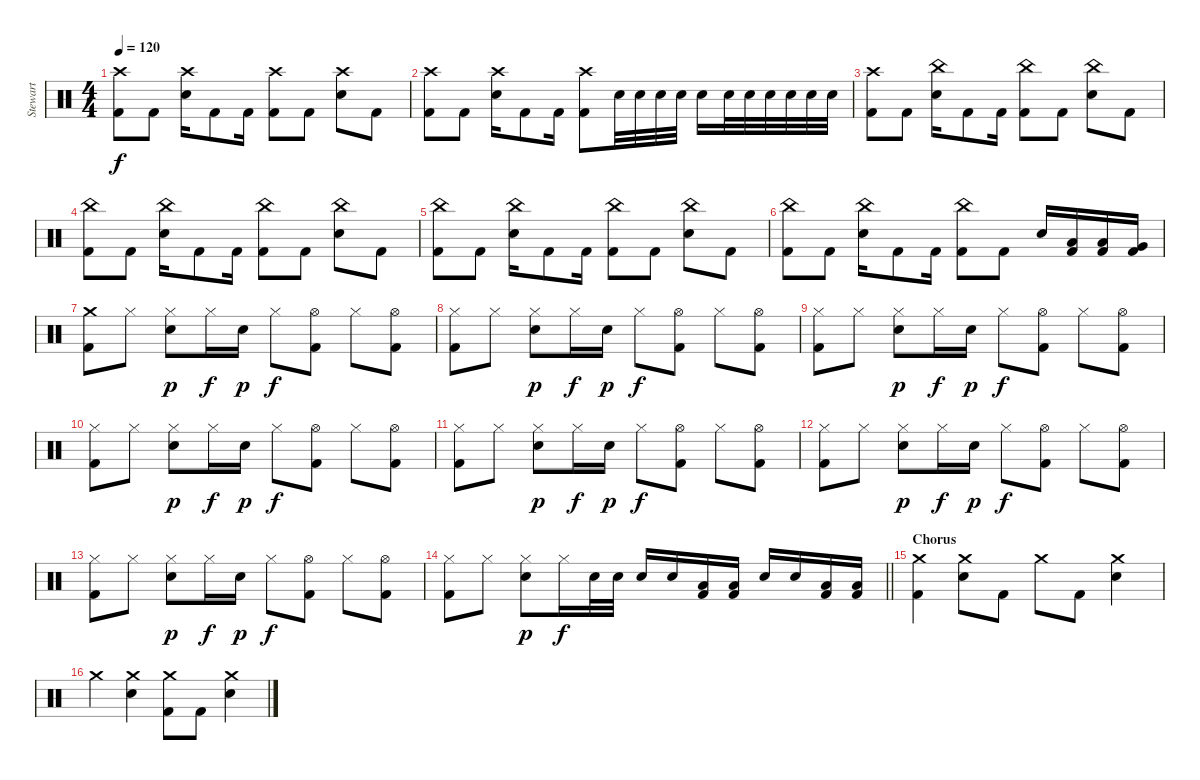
\track ("Stewart" "Stewart") {instrument percussion}
\staff {score}
\articulation defaults
\ts (4 4)
\tempo 120
\clef neutral
\ks c
("Kick (hit) 2" "Crash high (hit)").8{dy f} "Kick (hit) 2".8 ("Electric Snare (hit)" "Crash high (hit)").16 "Kick (hit) 2".8 "Kick (hit) 2".16 ("Kick (hit) 2" "Crash high (hit)").8 "Kick (hit) 2".8 ("Electric Snare (hit)" "Crash high (hit)").8 "Kick (hit) 2".8 |
("Kick (hit) 2" "Crash high (hit)").8 "Kick (hit) 2".8 ("Electric Snare (hit)" "Crash high (hit)").16 "Kick (hit) 2".8 "Kick (hit) 2".16 ("Crash high (hit)" "Kick (hit) 2").8 "Electric Snare (hit)".32 "Electric Snare (hit)".32 "Electric Snare (hit)".32 "Electric Snare (hit)".32 "Electric Snare (hit)".16 "Electric Snare (hit)".32 "Electric Snare (hit)".32 "Electric Snare (hit)".32 "Electric Snare (hit)".32 "Electric Snare (hit)".32 "Electric Snare (hit)".32 |
("Kick (hit) 2" "Crash high (hit)").8 "Kick (hit) 2".8 ("Electric Snare (hit)" "China (hit)").16 "Kick (hit) 2".8 "Kick (hit) 2".16 ("Kick (hit) 2" "China (hit)").8 "Kick (hit) 2".8 ("Electric Snare (hit)" "China (hit)").8 "Kick (hit) 2".8 |
("Kick (hit) 2" "China (hit)").8 "Kick (hit) 2".8 ("Electric Snare (hit)" "China (hit)").16 "Kick (hit) 2".8 "Kick (hit) 2".16 ("Kick (hit) 2" "China (hit)").8 "Kick (hit) 2".8 ("Electric Snare (hit)" "China (hit)").8 "Kick (hit) 2".8 |
("Kick (hit) 2" "China (hit)").8 "Kick (hit) 2".8 ("Electric Snare (hit)" "China (hit)").16 "Kick (hit) 2".8 "Kick (hit) 2".16 ("Kick (hit) 2" "China (hit)").8 "Kick (hit) 2".8 ("Electric Snare (hit)" "China (hit)").8 "Kick (hit) 2".8 |
("Kick (hit) 2" "China (hit)").8 "Kick (hit) 2".8 ("Electric Snare (hit)" "China (hit)").16 "Kick (hit) 2".8 "Kick (hit) 2".16 ("Kick (hit) 2" "China (hit)").8 "Kick (hit) 2".8 "Electric Snare (hit)".16 ("Low Tom (hit)" "Kick (hit) 2").16 ("Low Tom (hit)" "Kick (hit) 2").16 ("Very Low Tom (hit)" "Kick (hit) 2").16 |
("Crash medium (hit)" "Kick (hit) 2").8 "Hi-Hat (closed)".8 ("Hi-Hat (closed)" "Electric Snare (hit)").8{dy p} "Hi-Hat (closed)".16{dy f} "Electric Snare (hit)".16{dy p} "Hi-Hat (closed)".8{dy f} ("Hi-Hat (open)" "Kick (hit) 2").8 "Hi-Hat (closed)".8 ("Hi-Hat (open)" "Kick (hit) 2").8 |
("Hi-Hat (closed)" "Kick (hit) 2").8 "Hi-Hat (closed)".8 ("Hi-Hat (closed)" "Electric Snare (hit)").8{dy p} "Hi-Hat (closed)".16{dy f} "Electric Snare (hit)".16{dy p} "Hi-Hat (closed)".8{dy f} ("Hi-Hat (open)" "Kick (hit) 2").8 "Hi-Hat (closed)".8 ("Hi-Hat (open)" "Kick (hit) 2").8 |
("Hi-Hat (closed)" "Kick (hit) 2").8 "Hi-Hat (closed)".8 ("Hi-Hat (closed)" "Electric Snare (hit)").8{dy p} "Hi-Hat (closed)".16{dy f} "Electric Snare (hit)".16{dy p} "Hi-Hat (closed)".8{dy f} ("Hi-Hat (open)" "Kick (hit) 2").8 "Hi-Hat (closed)".8 ("Hi-Hat (open)" "Kick (hit) 2").8 |
("Hi-Hat (closed)" "Kick (hit) 2").8 "Hi-Hat (closed)".8 ("Hi-Hat (closed)" "Electric Snare (hit)").8{dy p} "Hi-Hat (closed)".16{dy f} "Electric Snare (hit)".16{dy p} "Hi-Hat (closed)".8{dy f} ("Hi-Hat (open)" "Kick (hit) 2").8 "Hi-Hat (closed)".8 ("Hi-Hat (open)" "Kick (hit) 2").8 |
("Hi-Hat (closed)" "Kick (hit) 2").8 "Hi-Hat (closed)".8 ("Hi-Hat (closed)" "Electric Snare (hit)").8{dy p} "Hi-Hat (closed)".16{dy f} "Electric Snare (hit)".16{dy p} "Hi-Hat (closed)".8{dy f} ("Hi-Hat (open)" "Kick (hit) 2").8 "Hi-Hat (closed)".8 ("Hi-Hat (open)" "Kick (hit) 2").8 |
("Hi-Hat (closed)" "Kick (hit) 2").8 "Hi-Hat (closed)".8 ("Hi-Hat (closed)" "Electric Snare (hit)").8{dy p} "Hi-Hat (closed)".16{dy f} "Electric Snare (hit)".16{dy p} "Hi-Hat (closed)".8{dy f} ("Hi-Hat (open)" "Kick (hit) 2").8 "Hi-Hat (closed)".8 ("Hi-Hat (open)" "Kick (hit) 2").8 |
("Hi-Hat (closed)" "Kick (hit) 2").8 "Hi-Hat (closed)".8 ("Hi-Hat (closed)" "Electric Snare (hit)").8{dy p} "Hi-Hat (closed)".16{dy f} "Electric Snare (hit)".16{dy p} "Hi-Hat (closed)".8{dy f} ("Hi-Hat (open)" "Kick (hit) 2").8 "Hi-Hat (closed)".8 ("Hi-Hat (open)" "Kick (hit) 2").8 |
\barLineRight lightlight
("Hi-Hat (closed)" "Kick (hit) 2").8 "Hi-Hat (closed)".8 ("Hi-Hat (closed)" "Electric Snare (hit)").8{dy p} "Hi-Hat (closed)".16{dy f} "Electric Snare (hit)".32 "Electric Snare (hit)".32 "Electric Snare (hit)".16 "Electric Snare (hit)".16 ("Low Tom (hit)" "Kick (hit) 2").16 ("Low Tom (hit)" "Kick (hit) 2").16 "Electric Snare (hit)".16 "Electric Snare (hit)".16 ("Low Tom (hit)" "Kick (hit) 2").16 ("Low Tom (hit)" "Kick (hit) 2").16 |
\section ("" "Chorus")
("Crash medium (hit)" "Kick (hit) 2").4 ("Crash medium (hit)" "Electric Snare (hit)").8 "Kick (hit) 2".8 "Crash medium (hit)".8 "Kick (hit) 2".8 ("Crash medium (hit)" "Electric Snare (hit)").4 |
"Crash medium (hit)".4 ("Crash medium (hit)" "Electric Snare (hit)").4 ("Crash medium (hit)" "Kick (hit) 2").8 "Kick (hit) 2".8 ("Crash medium (hit)" "Electric Snare (hit)").4
